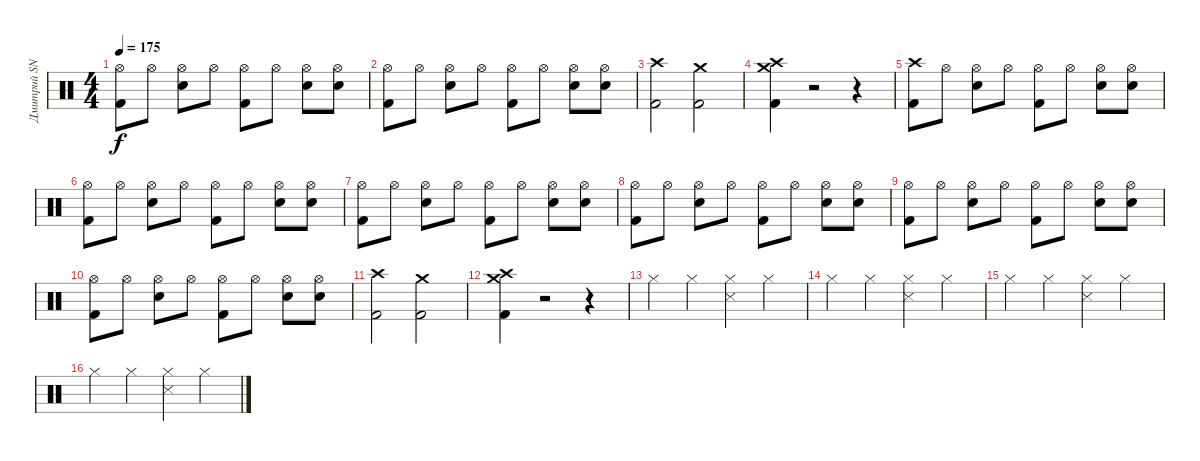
\track ("Дмитрий SNAKE Хакимов" "Дмитрий SN") {instrument percussion}
\staff {score}
\articulation defaults
\ts (4 4)
\tempo 175
\clef neutral
\ks c
("Hi-Hat (open)" "Kick (hit) 2").8{dy f} "Hi-Hat (open)".8 ("Hi-Hat (open)" "Snare (hit) 2").8 "Hi-Hat (open)".8 ("Hi-Hat (open)" "Kick (hit) 2").8 "Hi-Hat (open)".8 ("Hi-Hat (open)" "Snare (hit) 2").8 ("Hi-Hat (open)" "Snare (hit) 2").8 |
("Hi-Hat (open)" "Kick (hit) 2").8 "Hi-Hat (open)".8 ("Hi-Hat (open)" "Snare (hit) 2").8 "Hi-Hat (open)".8 ("Hi-Hat (open)" "Kick (hit) 2").8 "Hi-Hat (open)".8 ("Hi-Hat (open)" "Snare (hit) 2").8 ("Hi-Hat (open)" "Snare (hit) 2").8 |
("Crash high (hit)" "Kick (hit) 2").2 ("Crash medium (hit)" "Kick (hit) 2").2 |
("Crash high (hit)" "Crash medium (hit)" "Kick (hit) 2").4 r.2 r.4 |
("Crash high (hit)" "Kick (hit) 2").8 "Hi-Hat (open)".8 ("Hi-Hat (open)" "Snare (hit) 2").8 "Hi-Hat (open)".8 ("Hi-Hat (open)" "Kick (hit) 2").8 "Hi-Hat (open)".8 ("Hi-Hat (open)" "Snare (hit) 2").8 ("Hi-Hat (open)" "Snare (hit) 2").8 |
("Hi-Hat (open)" "Kick (hit) 2").8 "Hi-Hat (open)".8 ("Hi-Hat (open)" "Snare (hit) 2").8 "Hi-Hat (open)".8 ("Hi-Hat (open)" "Kick (hit) 2").8 "Hi-Hat (open)".8 ("Hi-Hat (open)" "Snare (hit) 2").8 ("Hi-Hat (open)" "Snare (hit) 2").8 |
("Hi-Hat (open)" "Kick (hit) 2").8 "Hi-Hat (open)".8 ("Hi-Hat (open)" "Snare (hit) 2").8 "Hi-Hat (open)".8 ("Hi-Hat (open)" "Kick (hit) 2").8 "Hi-Hat (open)".8 ("Hi-Hat (open)" "Snare (hit) 2").8 ("Hi-Hat (open)" "Snare (hit) 2").8 |
("Hi-Hat (open)" "Kick (hit) 2").8 "Hi-Hat (open)".8 ("Hi-Hat (open)" "Snare (hit) 2").8 "Hi-Hat (open)".8 ("Hi-Hat (open)" "Kick (hit) 2").8 "Hi-Hat (open)".8 ("Hi-Hat (open)" "Snare (hit) 2").8 ("Hi-Hat (open)" "Snare (hit) 2").8 |
("Hi-Hat (open)" "Kick (hit) 2").8 "Hi-Hat (open)".8 ("Hi-Hat (open)" "Snare (hit) 2").8 "Hi-Hat (open)".8 ("Hi-Hat (open)" "Kick (hit) 2").8 "Hi-Hat (open)".8 ("Hi-Hat (open)" "Snare (hit) 2").8 ("Hi-Hat (open)" "Snare (hit) 2").8 |
("Hi-Hat (open)" "Kick (hit) 2").8 "Hi-Hat (open)".8 ("Hi-Hat (open)" "Snare (hit) 2").8 "Hi-Hat (open)".8 ("Hi-Hat (open)" "Kick (hit) 2").8 "Hi-Hat (open)".8 ("Hi-Hat (open)" "Snare (hit) 2").8 ("Hi-Hat (open)" "Snare (hit) 2").8 |
("Crash high (hit)" "Kick (hit) 2").2 ("Crash medium (hit)" "Kick (hit) 2").2 |
("Crash high (hit)" "Crash medium (hit)" "Kick (hit) 2").4 r.2 r.4 |
"Hi-Hat (closed)".4 "Hi-Hat (closed)".4 ("Hi-Hat (closed)" "Snare (side stick) 3").4 "Hi-Hat (closed)".4 |
"Hi-Hat (closed)".4 "Hi-Hat (closed)".4 ("Hi-Hat (closed)" "Snare (side stick) 3").4 "Hi-Hat (closed)".4 |
"Hi-Hat (closed)".4 "Hi-Hat (closed)".4 ("Hi-Hat (closed)" "Snare (side stick) 3").4 "Hi-Hat (closed)".4 |
"Hi-Hat (closed)".4 "Hi-Hat (closed)".4 ("Hi-Hat (closed)" "Snare (side stick) 3").4 "Hi-Hat (closed)".4
